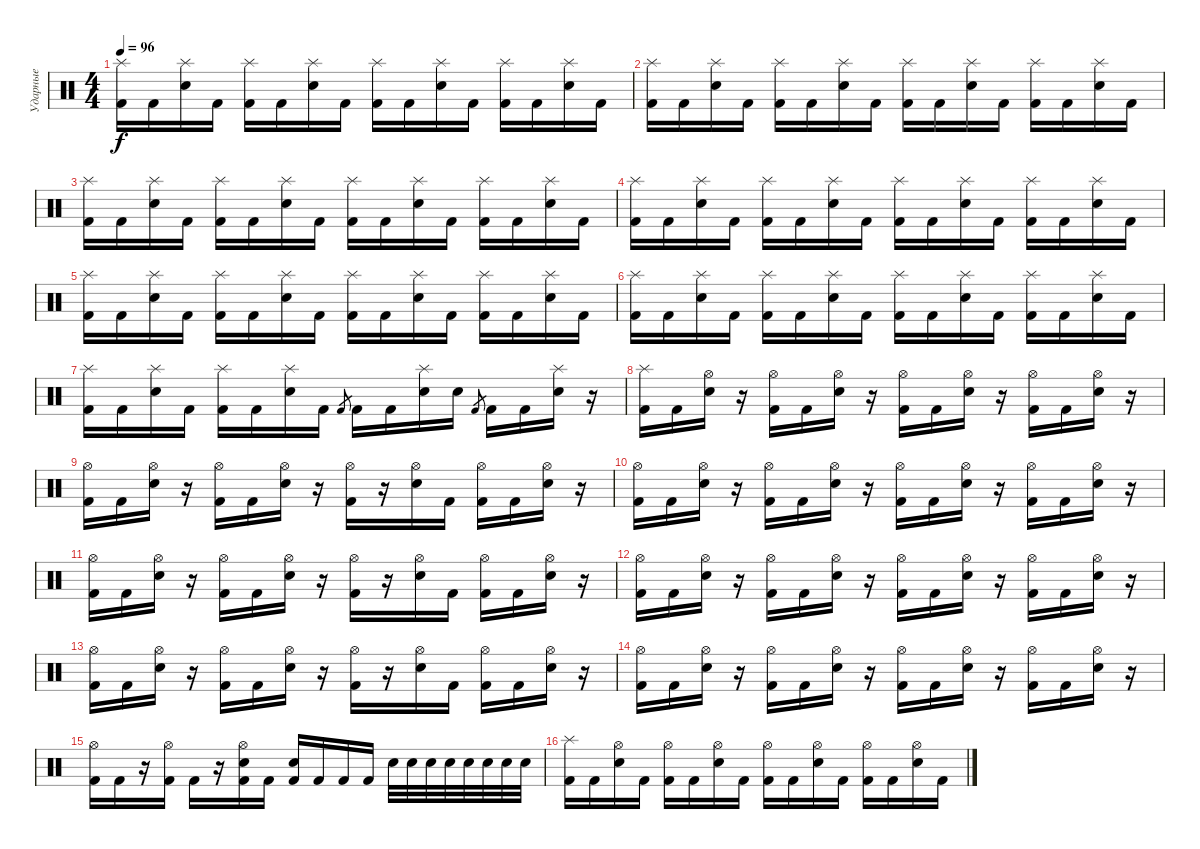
\track ("Ударные" "Ударные") {instrument percussion}
\staff {score}
\articulation defaults
\ts (4 4)
\tempo 96
\clef neutral
\ks c
("Splash (hit)" "Kick (hit) 2").16{dy f} "Kick (hit) 2".16 ("Splash (hit)" "Electric Snare (hit)").16 "Kick (hit) 2".16 ("Splash (hit)" "Kick (hit) 2").16 "Kick (hit) 2".16 ("Splash (hit)" "Electric Snare (hit)").16 "Kick (hit) 2".16 ("Splash (hit)" "Kick (hit) 2").16 "Kick (hit) 2".16 ("Splash (hit)" "Electric Snare (hit)").16 "Kick (hit) 2".16 ("Splash (hit)" "Kick (hit) 2").16 "Kick (hit) 2".16 ("Splash (hit)" "Electric Snare (hit)").16 "Kick (hit) 2".16 |
("Splash (hit)" "Kick (hit) 2").16 "Kick (hit) 2".16 ("Splash (hit)" "Electric Snare (hit)").16 "Kick (hit) 2".16 ("Splash (hit)" "Kick (hit) 2").16 "Kick (hit) 2".16 ("Splash (hit)" "Electric Snare (hit)").16 "Kick (hit) 2".16 ("Splash (hit)" "Kick (hit) 2").16 "Kick (hit) 2".16 ("Splash (hit)" "Electric Snare (hit)").16 "Kick (hit) 2".16 ("Splash (hit)" "Kick (hit) 2").16 "Kick (hit) 2".16 ("Splash (hit)" "Electric Snare (hit)").16 "Kick (hit) 2".16 |
("Splash (hit)" "Kick (hit) 2").16 "Kick (hit) 2".16 ("Splash (hit)" "Electric Snare (hit)").16 "Kick (hit) 2".16 ("Splash (hit)" "Kick (hit) 2").16 "Kick (hit) 2".16 ("Splash (hit)" "Electric Snare (hit)").16 "Kick (hit) 2".16 ("Splash (hit)" "Kick (hit) 2").16 "Kick (hit) 2".16 ("Splash (hit)" "Electric Snare (hit)").16 "Kick (hit) 2".16 ("Splash (hit)" "Kick (hit) 2").16 "Kick (hit) 2".16 ("Splash (hit)" "Electric Snare (hit)").16 "Kick (hit) 2".16 |
("Splash (hit)" "Kick (hit) 2").16 "Kick (hit) 2".16 ("Splash (hit)" "Electric Snare (hit)").16 "Kick (hit) 2".16 ("Splash (hit)" "Kick (hit) 2").16 "Kick (hit) 2".16 ("Splash (hit)" "Electric Snare (hit)").16 "Kick (hit) 2".16 ("Splash (hit)" "Kick (hit) 2").16 "Kick (hit) 2".16 ("Splash (hit)" "Electric Snare (hit)").16 "Kick (hit) 2".16 ("Splash (hit)" "Kick (hit) 2").16 "Kick (hit) 2".16 ("Splash (hit)" "Electric Snare (hit)").16 "Kick (hit) 2".16 |
("Splash (hit)" "Kick (hit) 2").16 "Kick (hit) 2".16 ("Splash (hit)" "Electric Snare (hit)").16 "Kick (hit) 2".16 ("Splash (hit)" "Kick (hit) 2").16 "Kick (hit) 2".16 ("Splash (hit)" "Electric Snare (hit)").16 "Kick (hit) 2".16 ("Splash (hit)" "Kick (hit) 2").16 "Kick (hit) 2".16 ("Splash (hit)" "Electric Snare (hit)").16 "Kick (hit) 2".16 ("Splash (hit)" "Kick (hit) 2").16 "Kick (hit) 2".16 ("Splash (hit)" "Electric Snare (hit)").16 "Kick (hit) 2".16 |
("Splash (hit)" "Kick (hit) 2").16 "Kick (hit) 2".16 ("Splash (hit)" "Electric Snare (hit)").16 "Kick (hit) 2".16 ("Splash (hit)" "Kick (hit) 2").16 "Kick (hit) 2".16 ("Splash (hit)" "Electric Snare (hit)").16 "Kick (hit) 2".16 ("Splash (hit)" "Kick (hit) 2").16 "Kick (hit) 2".16 ("Splash (hit)" "Electric Snare (hit)").16 "Kick (hit) 2".16 ("Splash (hit)" "Kick (hit) 2").16 "Kick (hit) 2".16 ("Splash (hit)" "Electric Snare (hit)").16 "Kick (hit) 2".16 |
("Splash (hit)" "Kick (hit) 2").16 "Kick (hit) 2".16 ("Splash (hit)" "Electric Snare (hit)").16 "Kick (hit) 2".16 ("Splash (hit)" "Kick (hit) 2").16 "Kick (hit) 2".16 ("Splash (hit)" "Electric Snare (hit)").16 "Kick (hit) 2".16 "Kick (hit) 2".8{gr} "Kick (hit) 2".16 "Kick (hit) 2".16 ("Splash (hit)" "Electric Snare (hit)").16 "Electric Snare (hit)".16 "Kick (hit) 2".8{gr} "Kick (hit) 2".16 "Kick (hit) 2".16 ("Splash (hit)" "Electric Snare (hit)").16 r.16 |
("Splash (hit)" "Kick (hit) 2").16 "Kick (hit) 2".16 ("Hi-Hat (open)" "Electric Snare (hit)").16 r.16 ("Hi-Hat (open)" "Kick (hit) 2").16 "Kick (hit) 2".16 ("Hi-Hat (open)" "Electric Snare (hit)").16 r.16 ("Hi-Hat (open)" "Kick (hit) 2").16 "Kick (hit) 2".16 ("Hi-Hat (open)" "Electric Snare (hit)").16 r.16 ("Hi-Hat (open)" "Kick (hit) 2").16 "Kick (hit) 2".16 ("Hi-Hat (open)" "Electric Snare (hit)").16 r.16 |
("Hi-Hat (open)" "Kick (hit) 2").16 "Kick (hit) 2".16 ("Hi-Hat (open)" "Electric Snare (hit)").16 r.16 ("Hi-Hat (open)" "Kick (hit) 2").16 "Kick (hit) 2".16 ("Hi-Hat (open)" "Electric Snare (hit)").16 r.16 ("Hi-Hat (open)" "Kick (hit) 2").16 r.16 ("Hi-Hat (open)" "Electric Snare (hit)").16 "Kick (hit) 2".16 ("Hi-Hat (open)" "Kick (hit) 2").16 "Kick (hit) 2".16 ("Hi-Hat (open)" "Electric Snare (hit)").16 r.16 |
("Hi-Hat (open)" "Kick (hit) 2").16 "Kick (hit) 2".16 ("Hi-Hat (open)" "Electric Snare (hit)").16 r.16 ("Hi-Hat (open)" "Kick (hit) 2").16 "Kick (hit) 2".16 ("Hi-Hat (open)" "Electric Snare (hit)").16 r.16 ("Hi-Hat (open)" "Kick (hit) 2").16 "Kick (hit) 2".16 ("Hi-Hat (open)" "Electric Snare (hit)").16 r.16 ("Hi-Hat (open)" "Kick (hit) 2").16 "Kick (hit) 2".16 ("Hi-Hat (open)" "Electric Snare (hit)").16 r.16 |
("Hi-Hat (open)" "Kick (hit) 2").16 "Kick (hit) 2".16 ("Hi-Hat (open)" "Electric Snare (hit)").16 r.16 ("Hi-Hat (open)" "Kick (hit) 2").16 "Kick (hit) 2".16 ("Hi-Hat (open)" "Electric Snare (hit)").16 r.16 ("Hi-Hat (open)" "Kick (hit) 2").16 r.16 ("Hi-Hat (open)" "Electric Snare (hit)").16 "Kick (hit) 2".16 ("Hi-Hat (open)" "Kick (hit) 2").16 "Kick (hit) 2".16 ("Hi-Hat (open)" "Electric Snare (hit)").16 r.16 |
("Hi-Hat (open)" "Kick (hit) 2").16 "Kick (hit) 2".16 ("Hi-Hat (open)" "Electric Snare (hit)").16 r.16 ("Hi-Hat (open)" "Kick (hit) 2").16 "Kick (hit) 2".16 ("Hi-Hat (open)" "Electric Snare (hit)").16 r.16 ("Hi-Hat (open)" "Kick (hit) 2").16 "Kick (hit) 2".16 ("Hi-Hat (open)" "Electric Snare (hit)").16 r.16 ("Hi-Hat (open)" "Kick (hit) 2").16 "Kick (hit) 2".16 ("Hi-Hat (open)" "Electric Snare (hit)").16 r.16 |
("Hi-Hat (open)" "Kick (hit) 2").16 "Kick (hit) 2".16 ("Hi-Hat (open)" "Electric Snare (hit)").16 r.16 ("Hi-Hat (open)" "Kick (hit) 2").16 "Kick (hit) 2".16 ("Hi-Hat (open)" "Electric Snare (hit)").16 r.16 ("Hi-Hat (open)" "Kick (hit) 2").16 r.16 ("Hi-Hat (open)" "Electric Snare (hit)").16 "Kick (hit) 2".16 ("Hi-Hat (open)" "Kick (hit) 2").16 "Kick (hit) 2".16 ("Hi-Hat (open)" "Electric Snare (hit)").16 r.16 |
("Hi-Hat (open)" "Kick (hit) 2").16 "Kick (hit) 2".16 ("Hi-Hat (open)" "Electric Snare (hit)").16 r.16 ("Hi-Hat (open)" "Kick (hit) 2").16 "Kick (hit) 2".16 ("Hi-Hat (open)" "Electric Snare (hit)").16 r.16 ("Hi-Hat (open)" "Kick (hit) 2").16 "Kick (hit) 2".16 ("Hi-Hat (open)" "Electric Snare (hit)").16 r.16 ("Hi-Hat (open)" "Kick (hit) 2").16 "Kick (hit) 2".16 ("Hi-Hat (open)" "Electric Snare (hit)").16 r.16 |
("Hi-Hat (open)" "Kick (hit) 2").16 "Kick (hit) 2".16 r.16 ("Hi-Hat (open)" "Kick (hit) 2").16 "Kick (hit) 2".16 r.16 ("Hi-Hat (open)" "Electric Snare (hit)" "Kick (hit) 2").16 "Kick (hit) 2".16 ("Electric Snare (hit)" "Kick (hit) 2").16 "Kick (hit) 2".16 "Kick (hit) 2".16 "Kick (hit) 2".16 "Electric Snare (hit)".32 "Electric Snare (hit)".32 "Electric Snare (hit)".32 "Electric Snare (hit)".32 "Electric Snare (hit)".32 "Electric Snare (hit)".32 "Electric Snare (hit)".32 "Electric Snare (hit)".32 |
("Splash (hit)" "Kick (hit) 2").16 "Kick (hit) 2".16 ("Hi-Hat (open)" "Electric Snare (hit)").16 "Kick (hit) 2".16 ("Hi-Hat (open)" "Kick (hit) 2").16 "Kick (hit) 2".16 ("Hi-Hat (open)" "Electric Snare (hit)").16 "Kick (hit) 2".16 ("Hi-Hat (open)" "Kick (hit) 2").16 "Kick (hit) 2".16 ("Hi-Hat (open)" "Electric Snare (hit)").16 "Kick (hit) 2".16 ("Hi-Hat (open)" "Kick (hit) 2").16 "Kick (hit) 2".16 ("Hi-Hat (open)" "Electric Snare (hit)").16 "Kick (hit) 2".16
